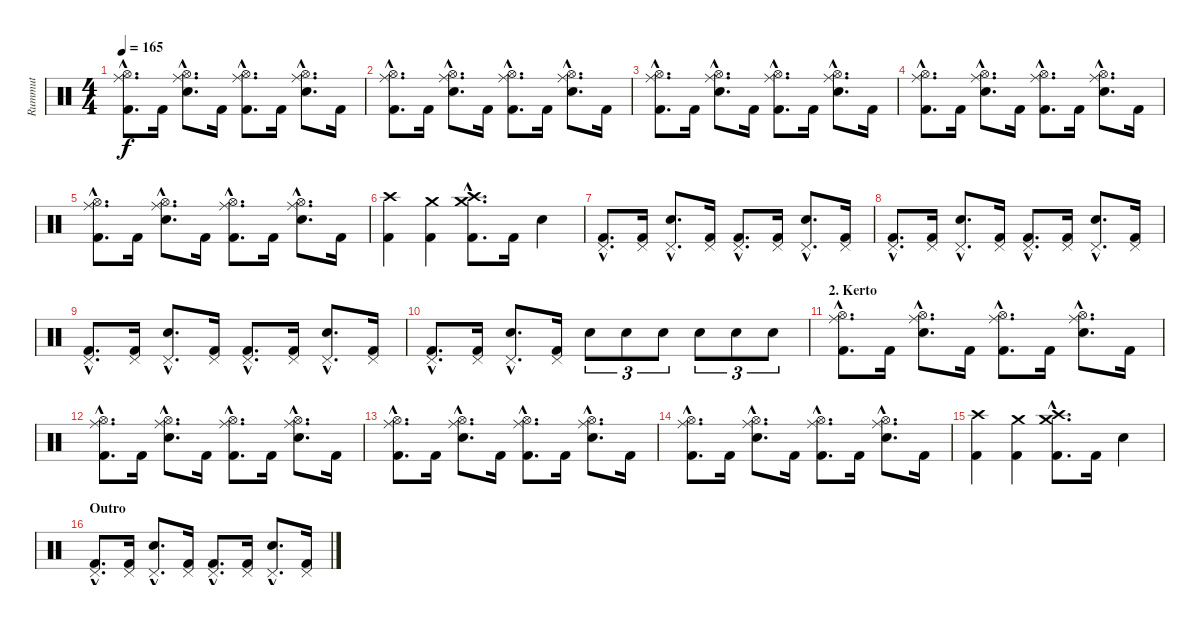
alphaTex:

\track ("Rummut" "Rummut") {instrument percussion}
\staff {score}
\articulation defaults
\ts (4 4)
\tempo 165
\clef neutral
\ks c
("Hi-Hat (open)"{hac} "Ride (middle)"{hac} "Kick (hit) 2"{hac}).8{d dy f} "Kick (hit) 2".16 ("Hi-Hat (open)"{hac} "Snare (hit) 2"{hac} "Ride (middle)"{hac}).8{d} "Kick (hit) 2".16 ("Hi-Hat (open)"{hac} "Ride (middle)"{hac} "Kick (hit) 2"{hac}).8{d} "Kick (hit) 2".16 ("Hi-Hat (open)"{hac} "Snare (hit) 2"{hac} "Ride (middle)"{hac}).8{d} "Kick (hit) 2".16 |
("Hi-Hat (open)"{hac} "Ride (middle)"{hac} "Kick (hit) 2"{hac}).8{d} "Kick (hit) 2".16 ("Hi-Hat (open)"{hac} "Snare (hit) 2"{hac} "Ride (middle)"{hac}).8{d} "Kick (hit) 2".16 ("Hi-Hat (open)"{hac} "Ride (middle)"{hac} "Kick (hit) 2"{hac}).8{d} "Kick (hit) 2".16 ("Hi-Hat (open)"{hac} "Snare (hit) 2"{hac} "Ride (middle)"{hac}).8{d} "Kick (hit) 2".16 |
("Hi-Hat (open)"{hac} "Ride (middle)"{hac} "Kick (hit) 2"{hac}).8{d} "Kick (hit) 2".16 ("Hi-Hat (open)"{hac} "Snare (hit) 2"{hac} "Ride (middle)"{hac}).8{d} "Kick (hit) 2".16 ("Hi-Hat (open)"{hac} "Ride (middle)"{hac} "Kick (hit) 2"{hac}).8{d} "Kick (hit) 2".16 ("Hi-Hat (open)"{hac} "Snare (hit) 2"{hac} "Ride (middle)"{hac}).8{d} "Kick (hit) 2".16 |
("Hi-Hat (open)"{hac} "Ride (middle)"{hac} "Kick (hit) 2"{hac}).8{d} "Kick (hit) 2".16 ("Hi-Hat (open)"{hac} "Snare (hit) 2"{hac} "Ride (middle)"{hac}).8{d} "Kick (hit) 2".16 ("Hi-Hat (open)"{hac} "Ride (middle)"{hac} "Kick (hit) 2"{hac}).8{d} "Kick (hit) 2".16 ("Hi-Hat (open)"{hac} "Snare (hit) 2"{hac} "Ride (middle)"{hac}).8{d} "Kick (hit) 2".16 |
("Hi-Hat (open)"{hac} "Ride (middle)"{hac} "Kick (hit) 2"{hac}).8{d} "Kick (hit) 2".16 ("Hi-Hat (open)"{hac} "Snare (hit) 2"{hac} "Ride (middle)"{hac}).8{d} "Kick (hit) 2".16 ("Hi-Hat (open)"{hac} "Ride (middle)"{hac} "Kick (hit) 2"{hac}).8{d} "Kick (hit) 2".16 ("Hi-Hat (open)"{hac} "Snare (hit) 2"{hac} "Ride (middle)"{hac}).8{d} "Kick (hit) 2".16 |
("Crash high (hit)" "Kick (hit) 2").4 ("Crash medium (hit)" "Kick (hit) 2").4 ("Crash medium (hit)"{hac} "Crash high (hit)"{hac} "Kick (hit) 2"{hac}).8{d} "Kick (hit) 2".16 "Snare (hit) 2".4 |
("Pedal Hi-Hat (hit)"{hac} "Kick (hit) 2"{hac}).8{d} ("Pedal Hi-Hat (hit)" "Kick (hit) 2").16 ("Pedal Hi-Hat (hit)"{hac} "Snare (hit) 2"{hac}).8{d} ("Pedal Hi-Hat (hit)" "Kick (hit) 2").16 ("Pedal Hi-Hat (hit)"{hac} "Kick (hit) 2"{hac}).8{d} ("Pedal Hi-Hat (hit)" "Kick (hit) 2").16 ("Pedal Hi-Hat (hit)"{hac} "Snare (hit) 2"{hac}).8{d} ("Pedal Hi-Hat (hit)" "Kick (hit) 2").16 |
("Pedal Hi-Hat (hit)"{hac} "Kick (hit) 2"{hac}).8{d} ("Pedal Hi-Hat (hit)" "Kick (hit) 2").16 ("Pedal Hi-Hat (hit)"{hac} "Snare (hit) 2"{hac}).8{d} ("Pedal Hi-Hat (hit)" "Kick (hit) 2").16 ("Pedal Hi-Hat (hit)"{hac} "Kick (hit) 2"{hac}).8{d} ("Pedal Hi-Hat (hit)" "Kick (hit) 2").16 ("Pedal Hi-Hat (hit)"{hac} "Snare (hit) 2"{hac}).8{d} ("Pedal Hi-Hat (hit)" "Kick (hit) 2").16 |
("Pedal Hi-Hat (hit)"{hac} "Kick (hit) 2"{hac}).8{d} ("Pedal Hi-Hat (hit)" "Kick (hit) 2").16 ("Pedal Hi-Hat (hit)"{hac} "Snare (hit) 2"{hac}).8{d} ("Pedal Hi-Hat (hit)" "Kick (hit) 2").16 ("Pedal Hi-Hat (hit)"{hac} "Kick (hit) 2"{hac}).8{d} ("Pedal Hi-Hat (hit)" "Kick (hit) 2").16 ("Pedal Hi-Hat (hit)"{hac} "Snare (hit) 2"{hac}).8{d} ("Pedal Hi-Hat (hit)" "Kick (hit) 2").16 |
("Pedal Hi-Hat (hit)"{hac} "Kick (hit) 2"{hac}).8{d} ("Pedal Hi-Hat (hit)" "Kick (hit) 2").16 ("Pedal Hi-Hat (hit)"{hac} "Snare (hit) 2"{hac}).8{d} ("Pedal Hi-Hat (hit)" "Kick (hit) 2").16 "Snare (hit) 2".8{tu (3 2)} "Snare (hit) 2".8{tu (3 2)} "Snare (hit) 2".8{tu (3 2)} "Snare (hit) 2".8{tu (3 2)} "Snare (hit) 2".8{tu (3 2)} "Snare (hit) 2".8{tu (3 2)} |
\section ("" "2. Kerto")
("Hi-Hat (open)"{hac} "Ride (middle)"{hac} "Kick (hit) 2"{hac}).8{d} "Kick (hit) 2".16 ("Hi-Hat (open)"{hac} "Snare (hit) 2"{hac} "Ride (middle)"{hac}).8{d} "Kick (hit) 2".16 ("Hi-Hat (open)"{hac} "Ride (middle)"{hac} "Kick (hit) 2"{hac}).8{d} "Kick (hit) 2".16 ("Hi-Hat (open)"{hac} "Snare (hit) 2"{hac} "Ride (middle)"{hac}).8{d} "Kick (hit) 2".16 |
("Hi-Hat (open)"{hac} "Ride (middle)"{hac} "Kick (hit) 2"{hac}).8{d} "Kick (hit) 2".16 ("Hi-Hat (open)"{hac} "Snare (hit) 2"{hac} "Ride (middle)"{hac}).8{d} "Kick (hit) 2".16 ("Hi-Hat (open)"{hac} "Ride (middle)"{hac} "Kick (hit) 2"{hac}).8{d} "Kick (hit) 2".16 ("Hi-Hat (open)"{hac} "Snare (hit) 2"{hac} "Ride (middle)"{hac}).8{d} "Kick (hit) 2".16 |
("Hi-Hat (open)"{hac} "Ride (middle)"{hac} "Kick (hit) 2"{hac}).8{d} "Kick (hit) 2".16 ("Hi-Hat (open)"{hac} "Snare (hit) 2"{hac} "Ride (middle)"{hac}).8{d} "Kick (hit) 2".16 ("Hi-Hat (open)"{hac} "Ride (middle)"{hac} "Kick (hit) 2"{hac}).8{d} "Kick (hit) 2".16 ("Hi-Hat (open)"{hac} "Snare (hit) 2"{hac} "Ride (middle)"{hac}).8{d} "Kick (hit) 2".16 |
("Hi-Hat (open)"{hac} "Ride (middle)"{hac} "Kick (hit) 2"{hac}).8{d} "Kick (hit) 2".16 ("Hi-Hat (open)"{hac} "Snare (hit) 2"{hac} "Ride (middle)"{hac}).8{d} "Kick (hit) 2".16 ("Hi-Hat (open)"{hac} "Ride (middle)"{hac} "Kick (hit) 2"{hac}).8{d} "Kick (hit) 2".16 ("Hi-Hat (open)"{hac} "Snare (hit) 2"{hac} "Ride (middle)"{hac}).8{d} "Kick (hit) 2".16 |
("Crash high (hit)" "Kick (hit) 2").4 ("Crash medium (hit)" "Kick (hit) 2").4 ("Crash medium (hit)"{hac} "Crash high (hit)"{hac} "Kick (hit) 2"{hac}).8{d} "Kick (hit) 2".16 "Snare (hit) 2".4 |
\section ("" "Outro")
("Pedal Hi-Hat (hit)"{hac} "Kick (hit) 2"{hac}).8{d} ("Pedal Hi-Hat (hit)" "Kick (hit) 2").16 ("Pedal Hi-Hat (hit)"{hac} "Snare (hit) 2"{hac}).8{d} ("Pedal Hi-Hat (hit)" "Kick (hit) 2").16 ("Pedal Hi-Hat (hit)"{hac} "Kick (hit) 2"{hac}).8{d} ("Pedal Hi-Hat (hit)" "Kick (hit) 2").16 ("Pedal Hi-Hat (hit)"{hac} "Snare (hit) 2"{hac}).8{d} ("Pedal Hi-Hat (hit)" "Kick (hit) 2").16
